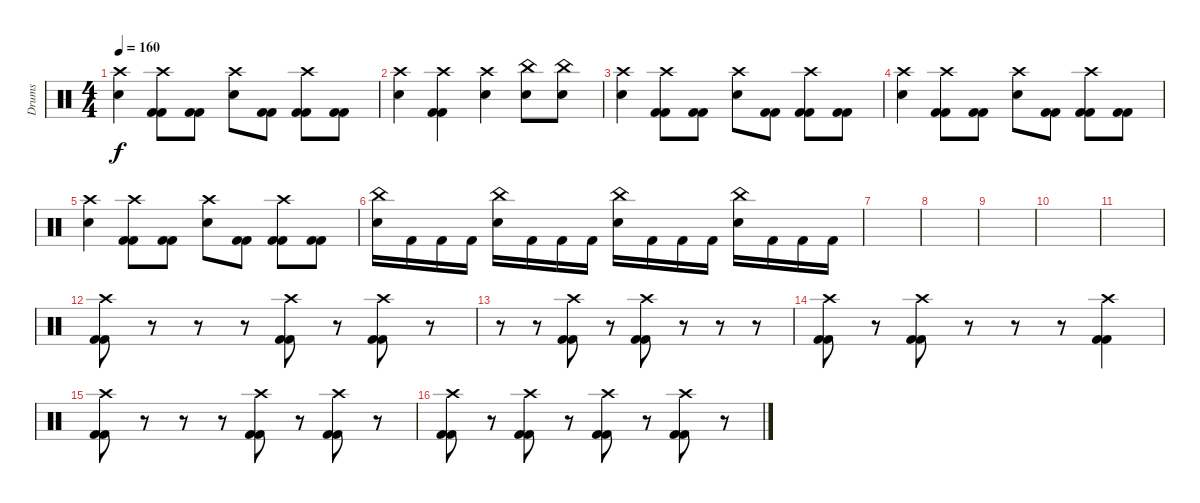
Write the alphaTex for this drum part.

\track ("Drums" "Drums") {instrument percussion}
\staff {score}
\articulation defaults
\ts (4 4)
\tempo 160
\clef neutral
\ks c
("Crash high (hit)" "Electric Snare (hit)").4{dy f} ("Crash high (hit)" "Kick (hit) 2" "Kick (hit) 2").8 ("Kick (hit) 2" "Kick (hit) 2").8 ("Electric Snare (hit)" "Crash high (hit)").8 ("Kick (hit) 2" "Kick (hit) 2").8 ("Crash high (hit)" "Kick (hit) 2" "Kick (hit) 2").8 ("Kick (hit) 2" "Kick (hit) 2").8 |
("Crash high (hit)" "Electric Snare (hit)").4 ("Crash high (hit)" "Kick (hit) 2" "Kick (hit) 2").4 ("Electric Snare (hit)" "Crash high (hit)").4 ("China (hit)" "Electric Snare (hit)").8 ("Electric Snare (hit)" "China (hit)").8 |
("Crash high (hit)" "Electric Snare (hit)").4 ("Crash high (hit)" "Kick (hit) 2" "Kick (hit) 2").8 ("Kick (hit) 2" "Kick (hit) 2").8 ("Electric Snare (hit)" "Crash high (hit)").8 ("Kick (hit) 2" "Kick (hit) 2").8 ("Crash high (hit)" "Kick (hit) 2" "Kick (hit) 2").8 ("Kick (hit) 2" "Kick (hit) 2").8 |
("Crash high (hit)" "Electric Snare (hit)").4 ("Crash high (hit)" "Kick (hit) 2" "Kick (hit) 2").8 ("Kick (hit) 2" "Kick (hit) 2").8 ("Electric Snare (hit)" "Crash high (hit)").8 ("Kick (hit) 2" "Kick (hit) 2").8 ("Crash high (hit)" "Kick (hit) 2" "Kick (hit) 2").8 ("Kick (hit) 2" "Kick (hit) 2").8 |
("Crash high (hit)" "Electric Snare (hit)").4 ("Crash high (hit)" "Kick (hit) 2" "Kick (hit) 2").8 ("Kick (hit) 2" "Kick (hit) 2").8 ("Electric Snare (hit)" "Crash high (hit)").8 ("Kick (hit) 2" "Kick (hit) 2").8 ("Crash high (hit)" "Kick (hit) 2" "Kick (hit) 2").8 ("Kick (hit) 2" "Kick (hit) 2").8 |
("China (hit)" "Electric Snare (hit)").16 "Kick (hit) 2".16 "Kick (hit) 2".16 "Kick (hit) 2".16 ("Electric Snare (hit)" "China (hit)").16 "Kick (hit) 2".16 "Kick (hit) 2".16 "Kick (hit) 2".16 ("China (hit)" "Electric Snare (hit)").16 "Kick (hit) 2".16 "Kick (hit) 2".16 "Kick (hit) 2".16 ("Electric Snare (hit)" "China (hit)").16 "Kick (hit) 2".16 "Kick (hit) 2".16 "Kick (hit) 2".16 |
|
|
|
|
|
("Crash high (hit)" "Kick (hit) 2" "Kick (hit) 2").8 r.8 r.8 r.8 ("Crash high (hit)" "Kick (hit) 2" "Kick (hit) 2").8 r.8 ("Kick (hit) 2" "Kick (hit) 2" "Crash high (hit)").8 r.8 |
r.8 r.8 ("Crash high (hit)" "Kick (hit) 2" "Kick (hit) 2").8 r.8 ("Kick (hit) 2" "Kick (hit) 2" "Crash high (hit)").8 r.8 r.8 r.8 |
("Crash high (hit)" "Kick (hit) 2" "Kick (hit) 2").8 r.8 ("Kick (hit) 2" "Kick (hit) 2" "Crash high (hit)").8 r.8 r.8 r.8 ("Crash high (hit)" "Kick (hit) 2" "Kick (hit) 2").4 |
("Crash high (hit)" "Kick (hit) 2" "Kick (hit) 2").8 r.8 r.8 r.8 ("Kick (hit) 2" "Kick (hit) 2" "Crash high (hit)").8 r.8 ("Kick (hit) 2" "Kick (hit) 2" "Crash high (hit)").8 r.8 |
("Crash high (hit)" "Kick (hit) 2" "Kick (hit) 2").8 r.8 ("Kick (hit) 2" "Kick (hit) 2" "Crash high (hit)").8 r.8 ("Crash high (hit)" "Kick (hit) 2" "Kick (hit) 2").8 r.8 ("Kick (hit) 2" "Kick (hit) 2" "Crash high (hit)").8 r.8
